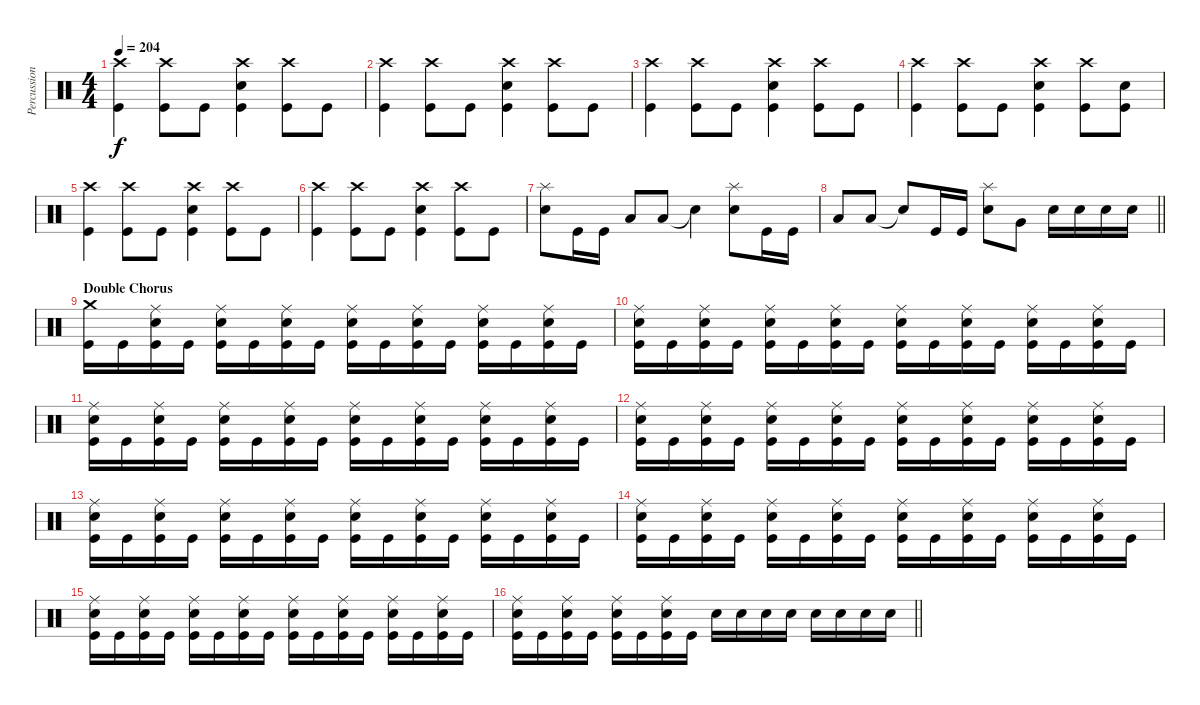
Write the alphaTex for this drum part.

\track ("Percussion" "Percussion") {instrument percussion}
\staff {score}
\articulation defaults
\ts (4 4)
\tempo 204
\clef neutral
\ks c
("Crash high (hit)" "Kick (hit)").4{dy f} ("Crash high (hit)" "Kick (hit)").8 "Kick (hit)".8 ("Crash high (hit)" "Electric Snare (hit)" "Kick (hit)").4 ("Crash high (hit)" "Kick (hit)").8 "Kick (hit)".8 |
("Crash high (hit)" "Kick (hit)").4 ("Crash high (hit)" "Kick (hit)").8 "Kick (hit)".8 ("Crash high (hit)" "Electric Snare (hit)" "Kick (hit)").4 ("Crash high (hit)" "Kick (hit)").8 "Kick (hit)".8 |
("Crash high (hit)" "Kick (hit)").4 ("Crash high (hit)" "Kick (hit)").8 "Kick (hit)".8 ("Crash high (hit)" "Electric Snare (hit)" "Kick (hit)").4 ("Crash high (hit)" "Kick (hit)").8 "Kick (hit)".8 |
("Crash high (hit)" "Kick (hit)").4 ("Crash high (hit)" "Kick (hit)").8 "Kick (hit)".8 ("Crash high (hit)" "Electric Snare (hit)" "Kick (hit)").4 ("Crash high (hit)" "Kick (hit)").8 ("Electric Snare (hit)" "Kick (hit)").8 |
("Crash high (hit)" "Kick (hit)").4 ("Crash high (hit)" "Kick (hit)").8 "Kick (hit)".8 ("Crash high (hit)" "Electric Snare (hit)" "Kick (hit)").4 ("Crash high (hit)" "Kick (hit)").8 "Kick (hit)".8 |
("Crash high (hit)" "Kick (hit)").4 ("Crash high (hit)" "Kick (hit)").8 "Kick (hit)".8 ("Crash high (hit)" "Electric Snare (hit)" "Kick (hit)").4 ("Crash high (hit)" "Kick (hit)").8 "Kick (hit)".8 |
("Splash (hit)" "Electric Snare (hit)").8 "Kick (hit)".16 "Kick (hit)".16 "Low Floor Tom (hit)".8 "Low Floor Tom (hit)".8 "Snare (hit)"{t}.4 ("Splash (hit)" "Electric Snare (hit)").8 "Kick (hit)".16 "Kick (hit)".16 |
\barLineRight lightlight "Low Floor Tom (hit)".8 "Low Floor Tom (hit)".8 "Snare (hit)"{t}.8 "Kick (hit)".16 "Kick (hit)".16
("Splash (hit)" "Electric Snare (hit)").8 "Very Low Tom (hit)".8 "Electric Snare (hit)".16 "Electric Snare (hit)".16 "Electric Snare (hit)".16 "Electric Snare (hit)".16 |
\section ("" "Double Chorus")
("Crash medium (hit)" "Kick (hit)").16 "Kick (hit)".16 ("Ride (middle)" "Electric Snare (hit)" "Kick (hit)").16 "Kick (hit)".16 ("Ride (middle)" "Electric Snare (hit)" "Kick (hit)").16 "Kick (hit)".16 ("Ride (middle)" "Electric Snare (hit)" "Kick (hit)").16 "Kick (hit)".16 ("Ride (middle)" "Electric Snare (hit)" "Kick (hit)").16 "Kick (hit)".16 ("Ride (middle)" "Electric Snare (hit)" "Kick (hit)").16 "Kick (hit)".16 ("Ride (middle)" "Electric Snare (hit)" "Kick (hit)").16 "Kick (hit)".16 ("Ride (middle)" "Electric Snare (hit)" "Kick (hit)").16 "Kick (hit)".16 |
("Ride (middle)" "Electric Snare (hit)" "Kick (hit)").16 "Kick (hit)".16 ("Ride (middle)" "Electric Snare (hit)" "Kick (hit)").16 "Kick (hit)".16 ("Ride (middle)" "Electric Snare (hit)" "Kick (hit)").16 "Kick (hit)".16 ("Ride (middle)" "Electric Snare (hit)" "Kick (hit)").16 "Kick (hit)".16 ("Ride (middle)" "Electric Snare (hit)" "Kick (hit)").16 "Kick (hit)".16 ("Ride (middle)" "Electric Snare (hit)" "Kick (hit)").16 "Kick (hit)".16 ("Ride (middle)" "Electric Snare (hit)" "Kick (hit)").16 "Kick (hit)".16 ("Ride (middle)" "Electric Snare (hit)" "Kick (hit)").16 "Kick (hit)".16 |
("Ride (middle)" "Electric Snare (hit)" "Kick (hit)").16 "Kick (hit)".16 ("Ride (middle)" "Electric Snare (hit)" "Kick (hit)").16 "Kick (hit)".16 ("Ride (middle)" "Electric Snare (hit)" "Kick (hit)").16 "Kick (hit)".16 ("Ride (middle)" "Electric Snare (hit)" "Kick (hit)").16 "Kick (hit)".16 ("Ride (middle)" "Electric Snare (hit)" "Kick (hit)").16 "Kick (hit)".16 ("Ride (middle)" "Electric Snare (hit)" "Kick (hit)").16 "Kick (hit)".16 ("Ride (middle)" "Electric Snare (hit)" "Kick (hit)").16 "Kick (hit)".16 ("Ride (middle)" "Electric Snare (hit)" "Kick (hit)").16 "Kick (hit)".16 |
("Ride (middle)" "Electric Snare (hit)" "Kick (hit)").16 "Kick (hit)".16 ("Ride (middle)" "Electric Snare (hit)" "Kick (hit)").16 "Kick (hit)".16 ("Ride (middle)" "Electric Snare (hit)" "Kick (hit)").16 "Kick (hit)".16 ("Ride (middle)" "Electric Snare (hit)" "Kick (hit)").16 "Kick (hit)".16 ("Ride (middle)" "Electric Snare (hit)" "Kick (hit)").16 "Kick (hit)".16 ("Ride (middle)" "Electric Snare (hit)" "Kick (hit)").16 "Kick (hit)".16 ("Ride (middle)" "Electric Snare (hit)" "Kick (hit)").16 "Kick (hit)".16 ("Ride (middle)" "Electric Snare (hit)" "Kick (hit)").16 "Kick (hit)".16 |
("Ride (middle)" "Electric Snare (hit)" "Kick (hit)").16 "Kick (hit)".16 ("Ride (middle)" "Electric Snare (hit)" "Kick (hit)").16 "Kick (hit)".16 ("Ride (middle)" "Electric Snare (hit)" "Kick (hit)").16 "Kick (hit)".16 ("Ride (middle)" "Electric Snare (hit)" "Kick (hit)").16 "Kick (hit)".16 ("Ride (middle)" "Electric Snare (hit)" "Kick (hit)").16 "Kick (hit)".16 ("Ride (middle)" "Electric Snare (hit)" "Kick (hit)").16 "Kick (hit)".16 ("Ride (middle)" "Electric Snare (hit)" "Kick (hit)").16 "Kick (hit)".16 ("Ride (middle)" "Electric Snare (hit)" "Kick (hit)").16 "Kick (hit)".16 |
("Ride (middle)" "Electric Snare (hit)" "Kick (hit)").16 "Kick (hit)".16 ("Ride (middle)" "Electric Snare (hit)" "Kick (hit)").16 "Kick (hit)".16 ("Ride (middle)" "Electric Snare (hit)" "Kick (hit)").16 "Kick (hit)".16 ("Ride (middle)" "Electric Snare (hit)" "Kick (hit)").16 "Kick (hit)".16 ("Ride (middle)" "Electric Snare (hit)" "Kick (hit)").16 "Kick (hit)".16 ("Ride (middle)" "Electric Snare (hit)" "Kick (hit)").16 "Kick (hit)".16 ("Ride (middle)" "Electric Snare (hit)" "Kick (hit)").16 "Kick (hit)".16 ("Ride (middle)" "Electric Snare (hit)" "Kick (hit)").16 "Kick (hit)".16 |
("Ride (middle)" "Electric Snare (hit)" "Kick (hit)").16 "Kick (hit)".16 ("Ride (middle)" "Electric Snare (hit)" "Kick (hit)").16 "Kick (hit)".16 ("Ride (middle)" "Electric Snare (hit)" "Kick (hit)").16 "Kick (hit)".16 ("Ride (middle)" "Electric Snare (hit)" "Kick (hit)").16 "Kick (hit)".16 ("Ride (middle)" "Electric Snare (hit)" "Kick (hit)").16 "Kick (hit)".16 ("Ride (middle)" "Electric Snare (hit)" "Kick (hit)").16 "Kick (hit)".16 ("Ride (middle)" "Electric Snare (hit)" "Kick (hit)").16 "Kick (hit)".16 ("Ride (middle)" "Electric Snare (hit)" "Kick (hit)").16 "Kick (hit)".16 |
\barLineRight lightlight
("Ride (middle)" "Electric Snare (hit)" "Kick (hit)").16 "Kick (hit)".16 ("Ride (middle)" "Electric Snare (hit)" "Kick (hit)").16 "Kick (hit)".16 ("Ride (middle)" "Electric Snare (hit)" "Kick (hit)").16 "Kick (hit)".16 ("Ride (middle)" "Electric Snare (hit)" "Kick (hit)").16 "Kick (hit)".16 "Electric Snare (hit)".16 "Electric Snare (hit)".16 "Electric Snare (hit)".16 "Electric Snare (hit)".16 "Electric Snare (hit)".16 "Electric Snare (hit)".16 "Electric Snare (hit)".16 "Electric Snare (hit)".16
